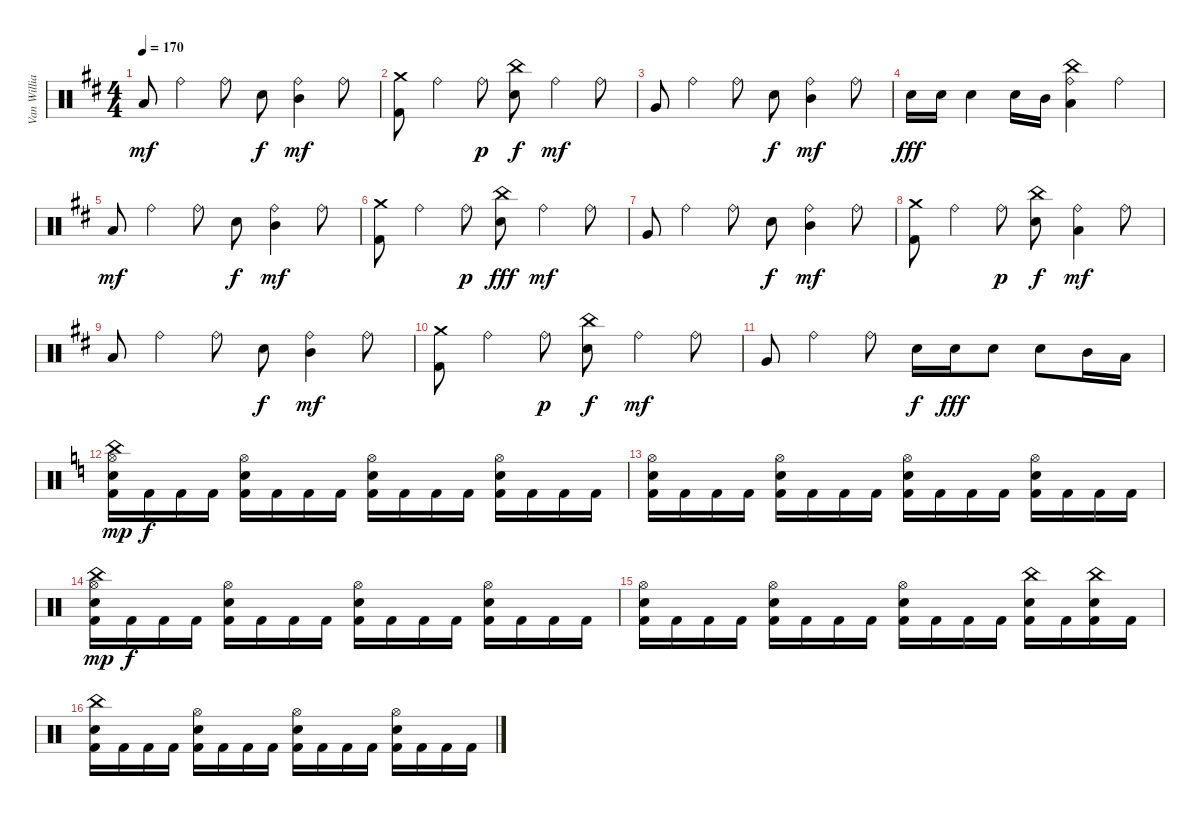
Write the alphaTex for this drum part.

\track ("Van Williams" "Van Willia") {instrument percussion}
\staff {score}
\articulation defaults
\ts (4 4)
\tempo 170
\clef neutral
\ks d "Low Tom (hit)".8{dy mf} "Ride (bell)".4 "Ride (bell)".8 "Electric Snare (hit)".8{dy f}
("Ride (bell)" "Mid Tom (hit)").4{dy mf} "Ride (bell)".8 |
("Crash medium (hit)" "Kick (hit) 2").8 "Ride (bell)".4 "Ride (bell)".8{dy p} ("China (hit)" "Electric Snare (hit)").8{dy f} "Ride (bell)".4{dy mf} "Ride (bell)".8 |
"Very Low Tom (hit)".8 "Ride (bell)".4 "Ride (bell)".8 "Electric Snare (hit)".8{dy f} ("Ride (bell)" "Mid Tom (hit)").4{dy mf} "Ride (bell)".8 |
"Electric Snare (hit)".16{dy fff} "Electric Snare (hit)".16 "Electric Snare (hit)".4 "Electric Snare (hit)".16 "Mid Tom (hit)".16 ("Ride (bell)" "China (hit)" "Low Tom (hit)").4 "Ride (bell)".4 |
"Low Tom (hit)".8{dy mf} "Ride (bell)".4 "Ride (bell)".8 "Electric Snare (hit)".8{dy f} ("Ride (bell)" "Mid Tom (hit)").4{dy mf} "Ride (bell)".8 |
("Crash medium (hit)" "Kick (hit) 2").8 "Ride (bell)".4 "Ride (bell)".8{dy p} ("China (hit)" "Electric Snare (hit)").8{dy fff} "Ride (bell)".4{dy mf} "Ride (bell)".8 |
"Very Low Tom (hit)".8 "Ride (bell)".4 "Ride (bell)".8 "Electric Snare (hit)".8{dy f} ("Ride (bell)" "Mid Tom (hit)").4{dy mf} "Ride (bell)".8 |
("Crash medium (hit)" "Kick (hit) 2").8 "Ride (bell)".4 "Ride (bell)".8{dy p} ("China (hit)" "Electric Snare (hit)").8{dy f} ("Ride (bell)" "Low Tom (hit)").4{dy mf} "Ride (bell)".8 |
"Low Tom (hit)".8 "Ride (bell)".4 "Ride (bell)".8 "Electric Snare (hit)".8{dy f} ("Ride (bell)" "Mid Tom (hit)").4{dy mf} "Ride (bell)".8 |
("Crash medium (hit)" "Kick (hit) 2").8 "Ride (bell)".4 "Ride (bell)".8{dy p} ("China (hit)" "Electric Snare (hit)").8{dy f} "Ride (bell)".4{dy mf} "Ride (bell)".8 |
"Very Low Tom (hit)".8 "Ride (bell)".4 "Ride (bell)".8 "Electric Snare (hit)".16{dy f} "Electric Snare (hit)".16{dy fff} "Electric Snare (hit)".8 "Electric Snare (hit)".8 "Mid Tom (hit)".16 "Low Tom (hit)".16 |
\ks c
("Hi-Hat (open)" "China (hit)" "Electric Snare (hit)" "Kick (hit) 2").16{dy mp} "Kick (hit) 2".16{dy f} "Kick (hit) 2".16 "Kick (hit) 2".16 ("Hi-Hat (open)" "Electric Snare (hit)" "Kick (hit) 2").16 "Kick (hit) 2".16 "Kick (hit) 2".16 "Kick (hit) 2".16 ("Hi-Hat (open)" "Electric Snare (hit)" "Kick (hit) 2").16 "Kick (hit) 2".16 "Kick (hit) 2".16 "Kick (hit) 2".16 ("Hi-Hat (open)" "Electric Snare (hit)" "Kick (hit) 2").16 "Kick (hit) 2".16 "Kick (hit) 2".16 "Kick (hit) 2".16 |
("Hi-Hat (open)" "Electric Snare (hit)" "Kick (hit) 2").16 "Kick (hit) 2".16 "Kick (hit) 2".16 "Kick (hit) 2".16 ("Hi-Hat (open)" "Electric Snare (hit)" "Kick (hit) 2").16 "Kick (hit) 2".16 "Kick (hit) 2".16 "Kick (hit) 2".16 ("Hi-Hat (open)" "Electric Snare (hit)" "Kick (hit) 2").16 "Kick (hit) 2".16 "Kick (hit) 2".16 "Kick (hit) 2".16 ("Hi-Hat (open)" "Electric Snare (hit)" "Kick (hit) 2").16 "Kick (hit) 2".16 "Kick (hit) 2".16 "Kick (hit) 2".16 |
("Hi-Hat (open)" "China (hit)" "Electric Snare (hit)" "Kick (hit) 2").16{dy mp} "Kick (hit) 2".16{dy f} "Kick (hit) 2".16 "Kick (hit) 2".16 ("Hi-Hat (open)" "Electric Snare (hit)" "Kick (hit) 2").16 "Kick (hit) 2".16 "Kick (hit) 2".16 "Kick (hit) 2".16 ("Hi-Hat (open)" "Electric Snare (hit)" "Kick (hit) 2").16 "Kick (hit) 2".16 "Kick (hit) 2".16 "Kick (hit) 2".16 ("Hi-Hat (open)" "Electric Snare (hit)" "Kick (hit) 2").16 "Kick (hit) 2".16 "Kick (hit) 2".16 "Kick (hit) 2".16 |
("Hi-Hat (open)" "Electric Snare (hit)" "Kick (hit) 2").16 "Kick (hit) 2".16 "Kick (hit) 2".16 "Kick (hit) 2".16 ("Hi-Hat (open)" "Electric Snare (hit)" "Kick (hit) 2").16 "Kick (hit) 2".16 "Kick (hit) 2".16 "Kick (hit) 2".16 ("Hi-Hat (open)" "Electric Snare (hit)" "Kick (hit) 2").16 "Kick (hit) 2".16 "Kick (hit) 2".16 "Kick (hit) 2".16 ("China (hit)" "Electric Snare (hit)" "Kick (hit) 2").16 "Kick (hit) 2".16 ("China (hit)" "Electric Snare (hit)" "Kick (hit) 2").16 "Kick (hit) 2".16 |
("China (hit)" "Electric Snare (hit)" "Kick (hit) 2").16 "Kick (hit) 2".16 "Kick (hit) 2".16 "Kick (hit) 2".16 ("Hi-Hat (open)" "Electric Snare (hit)" "Kick (hit) 2").16 "Kick (hit) 2".16 "Kick (hit) 2".16 "Kick (hit) 2".16 ("Hi-Hat (open)" "Electric Snare (hit)" "Kick (hit) 2").16 "Kick (hit) 2".16 "Kick (hit) 2".16 "Kick (hit) 2".16 ("Hi-Hat (open)" "Electric Snare (hit)" "Kick (hit) 2").16 "Kick (hit) 2".16 "Kick (hit) 2".16 "Kick (hit) 2".16
